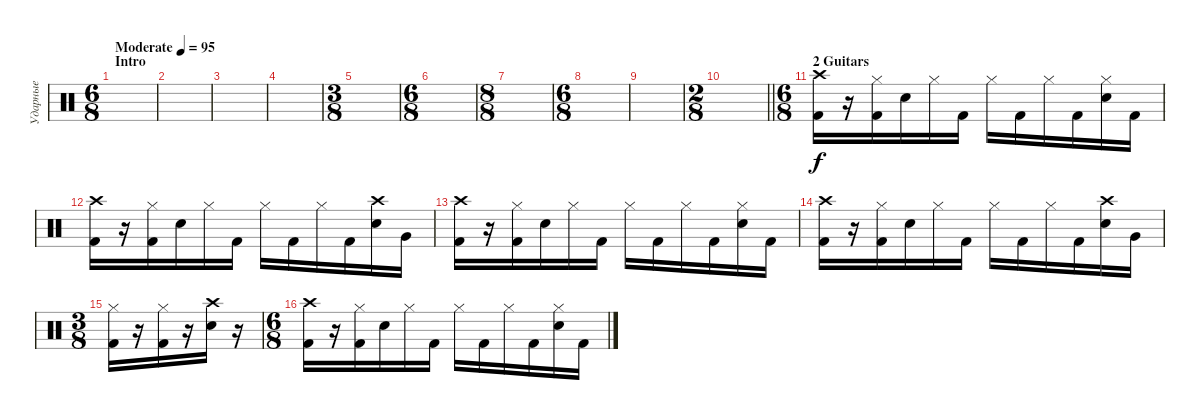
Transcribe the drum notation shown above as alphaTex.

\track ("Ударные" "Ударные") {instrument percussion}
\staff {score}
\articulation defaults
\ts (6 8)
\section ("" "Intro")
\tempo (95 "Moderate")
\clef neutral
\ks c
|
|
|
|
\ts (3 8)
|
\ts (6 8)
|
\ts (8 8)
|
\ts (6 8)
|
|
\ts (2 8)
\barLineRight lightlight
|
\ts (6 8)
\section ("" "2 Guitars")
("Kick (hit) 2" "Crash high (hit)").16 r.16 ("Kick (hit) 2" "Hi-Hat (closed)").16 "Snare (hit) 2".16 "Hi-Hat (closed)".16 "Kick (hit) 2".16 "Hi-Hat (closed)".16 "Kick (hit) 2".16 "Hi-Hat (closed)".16 "Kick (hit) 2".16 ("Snare (hit) 2" "Hi-Hat (closed)").16 "Kick (hit) 2".16 |
("Kick (hit) 2" "Crash high (hit)").16 r.16 ("Kick (hit) 2" "Hi-Hat (closed)").16 "Snare (hit) 2".16 "Hi-Hat (closed)".16 "Kick (hit) 2".16 "Hi-Hat (closed)".16 "Kick (hit) 2".16 "Hi-Hat (closed)".16 "Kick (hit) 2".16 ("Snare (hit) 2" "Crash high (hit)").16 "Very Low Tom (hit)".16 |
("Kick (hit) 2" "Crash high (hit)").16 r.16 ("Kick (hit) 2" "Hi-Hat (closed)").16 "Snare (hit) 2".16 "Hi-Hat (closed)".16 "Kick (hit) 2".16 "Hi-Hat (closed)".16 "Kick (hit) 2".16 "Hi-Hat (closed)".16 "Kick (hit) 2".16 ("Snare (hit) 2" "Hi-Hat (closed)").16 "Kick (hit) 2".16 |
("Kick (hit) 2" "Crash high (hit)").16 r.16 ("Kick (hit) 2" "Hi-Hat (closed)").16 "Snare (hit) 2".16 "Hi-Hat (closed)".16 "Kick (hit) 2".16 "Hi-Hat (closed)".16 "Kick (hit) 2".16 "Hi-Hat (closed)".16 "Kick (hit) 2".16 ("Snare (hit) 2" "Crash high (hit)").16 "Very Low Tom (hit)".16 |
\ts (3 8)
("Hi-Hat (closed)" "Kick (hit) 2").16 r.16 ("Hi-Hat (closed)" "Kick (hit) 2").16 r.16 ("Crash high (hit)" "Snare (hit) 2").16 r.16 |
\ts (6 8)
("Kick (hit) 2" "Crash high (hit)").16 r.16 ("Kick (hit) 2" "Hi-Hat (closed)").16 "Snare (hit) 2".16 "Hi-Hat (closed)".16 "Kick (hit) 2".16 "Hi-Hat (closed)".16 "Kick (hit) 2".16 "Hi-Hat (closed)".16 "Kick (hit) 2".16 ("Snare (hit) 2" "Hi-Hat (closed)").16 "Kick (hit) 2".16
